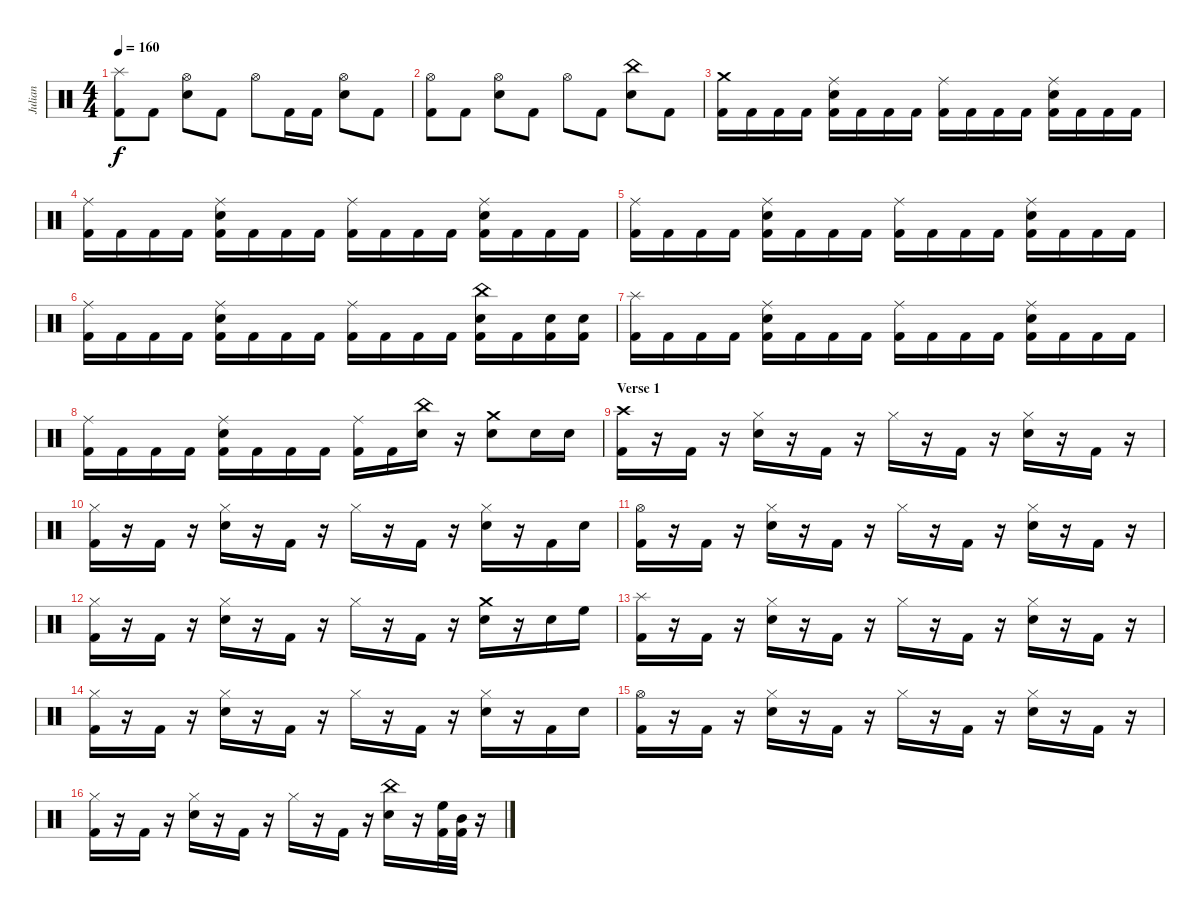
\track ("Julian" "Julian") {instrument percussion}
\staff {score}
\articulation defaults
\ts (4 4)
\tempo 160
\clef neutral
\ks c
("Splash (hit)" "Kick (hit) 2").8{dy f} "Kick (hit) 2".8 ("Hi-Hat (open)" "Electric Snare (hit)").8 "Kick (hit) 2".8 "Hi-Hat (open)".8 "Kick (hit) 2".16 "Kick (hit) 2".16 ("Hi-Hat (open)" "Electric Snare (hit)").8 "Kick (hit) 2".8 |
("Hi-Hat (open)" "Kick (hit) 2").8 "Kick (hit) 2".8 ("Hi-Hat (open)" "Electric Snare (hit)").8 "Kick (hit) 2".8 "Hi-Hat (open)".8 "Kick (hit) 2".8 ("China (hit)" "Electric Snare (hit)").8 "Kick (hit) 2".8 |
("Crash medium (hit)" "Kick (hit) 2").16 "Kick (hit) 2".16 "Kick (hit) 2".16 "Kick (hit) 2".16 ("Ride (middle)" "Electric Snare (hit)" "Kick (hit) 2").16 "Kick (hit) 2".16 "Kick (hit) 2".16 "Kick (hit) 2".16 ("Ride (middle)" "Kick (hit) 2").16 "Kick (hit) 2".16 "Kick (hit) 2".16 "Kick (hit) 2".16 ("Ride (middle)" "Electric Snare (hit)" "Kick (hit) 2").16 "Kick (hit) 2".16 "Kick (hit) 2".16 "Kick (hit) 2".16 |
("Ride (middle)" "Kick (hit) 2").16 "Kick (hit) 2".16 "Kick (hit) 2".16 "Kick (hit) 2".16 ("Ride (middle)" "Electric Snare (hit)" "Kick (hit) 2").16 "Kick (hit) 2".16 "Kick (hit) 2".16 "Kick (hit) 2".16 ("Ride (middle)" "Kick (hit) 2").16 "Kick (hit) 2".16 "Kick (hit) 2".16 "Kick (hit) 2".16 ("Ride (middle)" "Electric Snare (hit)" "Kick (hit) 2").16 "Kick (hit) 2".16 "Kick (hit) 2".16 "Kick (hit) 2".16 |
("Ride (middle)" "Kick (hit) 2").16 "Kick (hit) 2".16 "Kick (hit) 2".16 "Kick (hit) 2".16 ("Ride (middle)" "Electric Snare (hit)" "Kick (hit) 2").16 "Kick (hit) 2".16 "Kick (hit) 2".16 "Kick (hit) 2".16 ("Ride (middle)" "Kick (hit) 2").16 "Kick (hit) 2".16 "Kick (hit) 2".16 "Kick (hit) 2".16 ("Ride (middle)" "Electric Snare (hit)" "Kick (hit) 2").16 "Kick (hit) 2".16 "Kick (hit) 2".16 "Kick (hit) 2".16 |
("Ride (middle)" "Kick (hit) 2").16 "Kick (hit) 2".16 "Kick (hit) 2".16 "Kick (hit) 2".16 ("Ride (middle)" "Electric Snare (hit)" "Kick (hit) 2").16 "Kick (hit) 2".16 "Kick (hit) 2".16 "Kick (hit) 2".16 ("Ride (middle)" "Kick (hit) 2").16 "Kick (hit) 2".16 "Kick (hit) 2".16 "Kick (hit) 2".16 ("China (hit)" "Electric Snare (hit)" "Kick (hit) 2").16 "Kick (hit) 2".16 ("Electric Snare (hit)" "Kick (hit) 2").16 ("Electric Snare (hit)" "Kick (hit) 2").16 |
("Splash (hit)" "Kick (hit) 2").16 "Kick (hit) 2".16 "Kick (hit) 2".16 "Kick (hit) 2".16 ("Ride (middle)" "Electric Snare (hit)" "Kick (hit) 2").16 "Kick (hit) 2".16 "Kick (hit) 2".16 "Kick (hit) 2".16 ("Ride (middle)" "Kick (hit) 2").16 "Kick (hit) 2".16 "Kick (hit) 2".16 "Kick (hit) 2".16 ("Ride (middle)" "Electric Snare (hit)" "Kick (hit) 2").16 "Kick (hit) 2".16 "Kick (hit) 2".16 "Kick (hit) 2".16 |
("Ride (middle)" "Kick (hit) 2").16 "Kick (hit) 2".16 "Kick (hit) 2".16 "Kick (hit) 2".16 ("Ride (middle)" "Electric Snare (hit)" "Kick (hit) 2").16 "Kick (hit) 2".16 "Kick (hit) 2".16 "Kick (hit) 2".16 ("Ride (middle)" "Kick (hit) 2").16 "Kick (hit) 2".16 ("China (hit)" "Electric Snare (hit)").16 r.16 ("Crash medium (hit)" "Electric Snare (hit)").8 "Electric Snare (hit)".16 "Electric Snare (hit)".16 |
\section ("" "Verse 1")
("Crash high (hit)" "Kick (hit) 2").16 r.16 "Kick (hit) 2".16 r.16 ("Hi-Hat (closed)" "Electric Snare (hit)").16 r.16 "Kick (hit) 2".16 r.16 "Hi-Hat (closed)".16 r.16 "Kick (hit) 2".16 r.16 ("Hi-Hat (closed)" "Electric Snare (hit)").16 r.16 "Kick (hit) 2".16 r.16 |
("Hi-Hat (closed)" "Kick (hit) 2").16 r.16 "Kick (hit) 2".16 r.16 ("Hi-Hat (closed)" "Electric Snare (hit)").16 r.16 "Kick (hit) 2".16 r.16 "Hi-Hat (closed)".16 r.16 "Kick (hit) 2".16 r.16 ("Hi-Hat (closed)" "Electric Snare (hit)").16 r.16 "Kick (hit) 2".16 "Electric Snare (hit)".16 |
("Hi-Hat (open)" "Kick (hit) 2").16 r.16 "Kick (hit) 2".16 r.16 ("Hi-Hat (closed)" "Electric Snare (hit)").16 r.16 "Kick (hit) 2".16 r.16 "Hi-Hat (closed)".16 r.16 "Kick (hit) 2".16 r.16 ("Hi-Hat (closed)" "Electric Snare (hit)").16 r.16 "Kick (hit) 2".16 r.16 |
("Hi-Hat (closed)" "Kick (hit) 2").16 r.16 "Kick (hit) 2".16 r.16 ("Hi-Hat (closed)" "Electric Snare (hit)").16 r.16 "Kick (hit) 2".16 r.16 "Hi-Hat (closed)".16 r.16 "Kick (hit) 2".16 r.16 ("Crash medium (hit)" "Electric Snare (hit)").16 r.16 "Electric Snare (hit)".16 "High Floor Tom (hit)".16 |
("Splash (hit)" "Kick (hit) 2").16 r.16 "Kick (hit) 2".16 r.16 ("Hi-Hat (closed)" "Electric Snare (hit)").16 r.16 "Kick (hit) 2".16 r.16 "Hi-Hat (closed)".16 r.16 "Kick (hit) 2".16 r.16 ("Hi-Hat (closed)" "Electric Snare (hit)").16 r.16 "Kick (hit) 2".16 r.16 |
("Hi-Hat (closed)" "Kick (hit) 2").16 r.16 "Kick (hit) 2".16 r.16 ("Hi-Hat (closed)" "Electric Snare (hit)").16 r.16 "Kick (hit) 2".16 r.16 "Hi-Hat (closed)".16 r.16 "Kick (hit) 2".16 r.16 ("Hi-Hat (closed)" "Electric Snare (hit)").16 r.16 "Kick (hit) 2".16 "Electric Snare (hit)".16 |
("Hi-Hat (open)" "Kick (hit) 2").16 r.16 "Kick (hit) 2".16 r.16 ("Hi-Hat (closed)" "Electric Snare (hit)").16 r.16 "Kick (hit) 2".16 r.16 "Hi-Hat (closed)".16 r.16 "Kick (hit) 2".16 r.16 ("Hi-Hat (closed)" "Electric Snare (hit)").16 r.16 "Kick (hit) 2".16 r.16 |
("Hi-Hat (closed)" "Kick (hit) 2").16 r.16 "Kick (hit) 2".16 r.16 ("Hi-Hat (closed)" "Electric Snare (hit)").16 r.16 "Kick (hit) 2".16 r.16 "Hi-Hat (closed)".16 r.16 "Kick (hit) 2".16 r.16 ("China (hit)" "Electric Snare (hit)").16 r.16 ("High Floor Tom (hit)" "Kick (hit) 2").32 ("Mid Tom (hit)" "Kick (hit) 2").32 r.16
